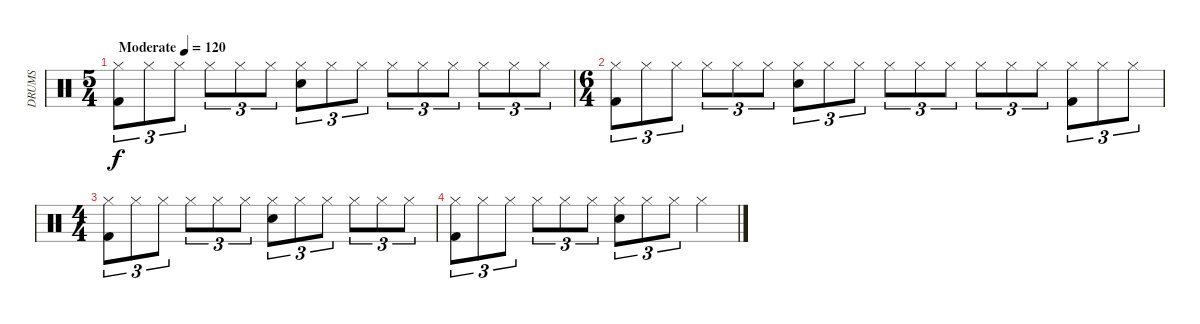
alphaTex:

\track ("DRUMS" "DRUMS") {instrument percussion}
\staff {score}
\articulation defaults
\ts (5 4)
\tempo (120 "Moderate")
\clef neutral
\ks c
("Hi-Hat (closed)" "Kick (hit) 2").8{tu (3 2) dy f} "Hi-Hat (closed)".8{tu (3 2)} "Hi-Hat (closed)".8{tu (3 2)} "Hi-Hat (closed)".8{tu (3 2)} "Hi-Hat (closed)".8{tu (3 2)} "Hi-Hat (closed)".8{tu (3 2)} ("Hi-Hat (closed)" "Electric Snare (hit)").8{tu (3 2)} "Hi-Hat (closed)".8{tu (3 2)} "Hi-Hat (closed)".8{tu (3 2)} "Hi-Hat (closed)".8{tu (3 2)} "Hi-Hat (closed)".8{tu (3 2)} "Hi-Hat (closed)".8{tu (3 2)} "Hi-Hat (closed)".8{tu (3 2)} "Hi-Hat (closed)".8{tu (3 2)} "Hi-Hat (closed)".8{tu (3 2)} |
\ts (6 4)
("Hi-Hat (closed)" "Kick (hit) 2").8{tu (3 2)} "Hi-Hat (closed)".8{tu (3 2)} "Hi-Hat (closed)".8{tu (3 2)} "Hi-Hat (closed)".8{tu (3 2)} "Hi-Hat (closed)".8{tu (3 2)} "Hi-Hat (closed)".8{tu (3 2)} ("Hi-Hat (closed)" "Electric Snare (hit)").8{tu (3 2)} "Hi-Hat (closed)".8{tu (3 2)} "Hi-Hat (closed)".8{tu (3 2)} "Hi-Hat (closed)".8{tu (3 2)} "Hi-Hat (closed)".8{tu (3 2)} "Hi-Hat (closed)".8{tu (3 2)} "Hi-Hat (closed)".8{tu (3 2)} "Hi-Hat (closed)".8{tu (3 2)} "Hi-Hat (closed)".8{tu (3 2)} ("Hi-Hat (closed)" "Kick (hit) 2").8{tu (3 2)} "Hi-Hat (closed)".8{tu (3 2)} "Hi-Hat (closed)".8{tu (3 2)} |
\ts (4 4)
("Hi-Hat (closed)" "Kick (hit) 2").8{tu (3 2)} "Hi-Hat (closed)".8{tu (3 2)} "Hi-Hat (closed)".8{tu (3 2)} "Hi-Hat (closed)".8{tu (3 2)} "Hi-Hat (closed)".8{tu (3 2)} "Hi-Hat (closed)".8{tu (3 2)} ("Hi-Hat (closed)" "Electric Snare (hit)").8{tu (3 2)} "Hi-Hat (closed)".8{tu (3 2)} "Hi-Hat (closed)".8{tu (3 2)} "Hi-Hat (closed)".8{tu (3 2)} "Hi-Hat (closed)".8{tu (3 2)} "Hi-Hat (closed)".8{tu (3 2)} |
("Hi-Hat (closed)" "Kick (hit) 2").8{tu (3 2)} "Hi-Hat (closed)".8{tu (3 2)} "Hi-Hat (closed)".8{tu (3 2)} "Hi-Hat (closed)".8{tu (3 2)} "Hi-Hat (closed)".8{tu (3 2)} "Hi-Hat (closed)".8{tu (3 2)} ("Hi-Hat (closed)" "Electric Snare (hit)").8{tu (3 2)} "Hi-Hat (closed)".8{tu (3 2)} "Hi-Hat (closed)".8{tu (3 2)} "Hi-Hat (closed)".4
